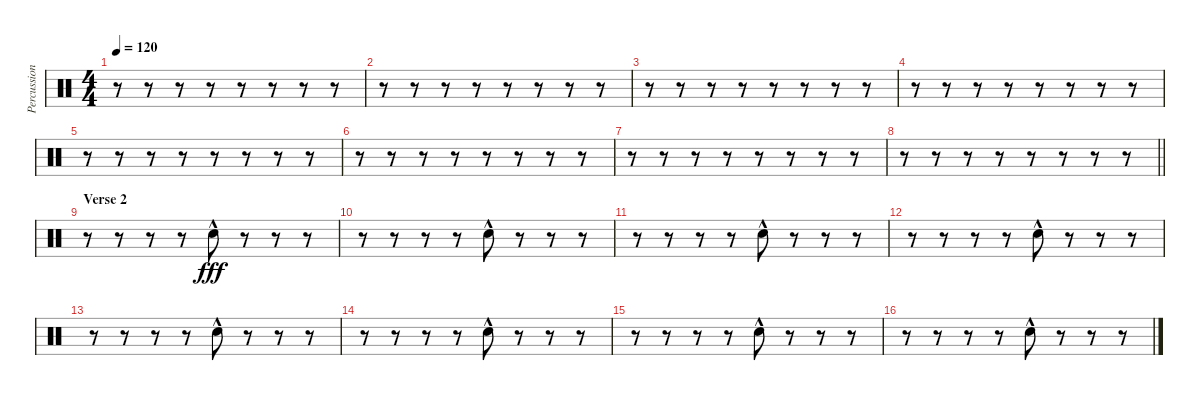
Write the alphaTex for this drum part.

\track ("Percussion" "Percussion") {instrument percussion}
\staff {score}
\articulation defaults
\ts (4 4)
\tempo 120
\clef neutral
\ks c
r.8{dy fff} r.8 r.8 r.8 r.8 r.8 r.8 r.8 |
r.8 r.8 r.8 r.8 r.8 r.8 r.8 r.8 |
r.8 r.8 r.8 r.8 r.8 r.8 r.8 r.8 |
r.8 r.8 r.8 r.8 r.8 r.8 r.8 r.8 |
r.8 r.8 r.8 r.8 r.8 r.8 r.8 r.8 |
r.8 r.8 r.8 r.8 r.8 r.8 r.8 r.8 |
r.8 r.8 r.8 r.8 r.8 r.8 r.8 r.8 |
\barLineRight lightlight
r.8 r.8 r.8 r.8 r.8 r.8 r.8 r.8 |
\section ("" "Verse 2")
r.8 r.8 r.8 r.8 "Snare (hit) 2"{hac}.8 r.8 r.8 r.8 |
r.8 r.8 r.8 r.8 "Snare (hit) 2"{hac}.8 r.8 r.8 r.8 |
r.8 r.8 r.8 r.8 "Snare (hit) 2"{hac}.8 r.8 r.8 r.8 |
r.8 r.8 r.8 r.8 "Snare (hit) 2"{hac}.8 r.8 r.8 r.8 |
r.8 r.8 r.8 r.8 "Snare (hit) 2"{hac}.8 r.8 r.8 r.8 |
r.8 r.8 r.8 r.8 "Snare (hit) 2"{hac}.8 r.8 r.8 r.8 |
r.8 r.8 r.8 r.8 "Snare (hit) 2"{hac}.8 r.8 r.8 r.8 |
r.8 r.8 r.8 r.8 "Snare (hit) 2"{hac}.8 r.8 r.8 r.8
